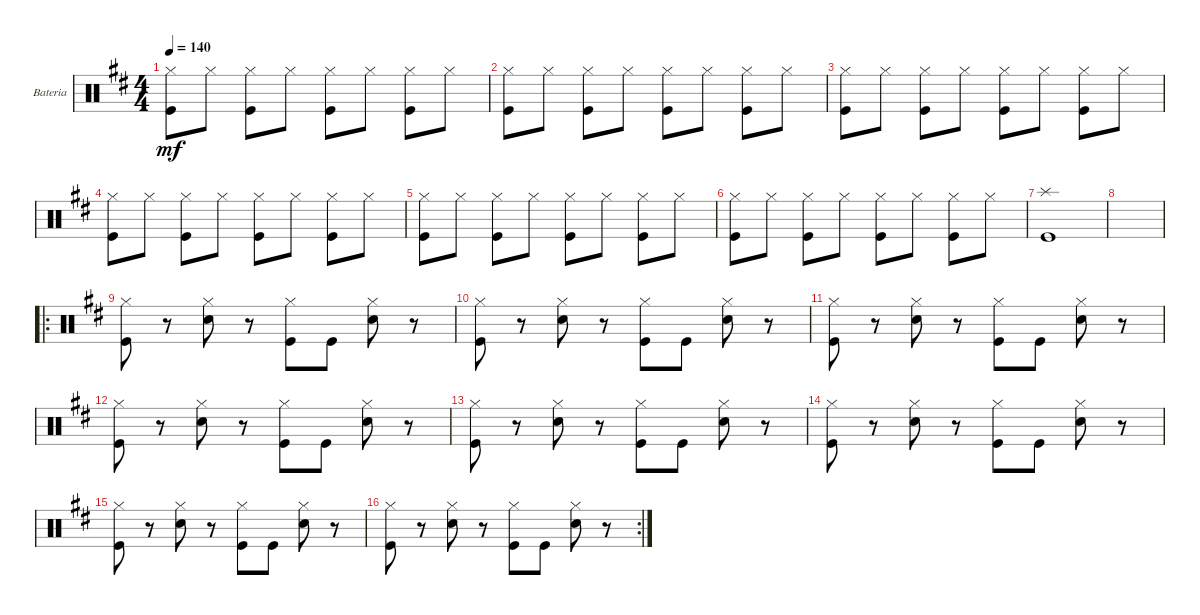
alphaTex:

\defaultSystemsLayout 4
\bracketExtendMode groupsimilarinstruments
\firstSystemTrackNameOrientation horizontal
\otherSystemsTrackNameOrientation horizontal
\track ("Bateria" "Bateria") {instrument percussion}
\staff {score}
\articulation defaults
\ts (4 4)
\tempo 140
\clef neutral
\ks d
("Kick (hit)" "Hi-Hat (closed)").8{dy mf} "Hi-Hat (closed)".8 ("Hi-Hat (closed)" "Kick (hit)").8 "Hi-Hat (closed)".8 ("Kick (hit)" "Hi-Hat (closed)").8 "Hi-Hat (closed)".8 ("Hi-Hat (closed)" "Kick (hit)").8 "Hi-Hat (closed)".8 |
("Kick (hit)" "Hi-Hat (closed)").8 "Hi-Hat (closed)".8 ("Hi-Hat (closed)" "Kick (hit)").8 "Hi-Hat (closed)".8 ("Kick (hit)" "Hi-Hat (closed)").8 "Hi-Hat (closed)".8 ("Hi-Hat (closed)" "Kick (hit)").8 "Hi-Hat (closed)".8 |
("Kick (hit)" "Hi-Hat (closed)").8 "Hi-Hat (closed)".8 ("Hi-Hat (closed)" "Kick (hit)").8 "Hi-Hat (closed)".8 ("Kick (hit)" "Hi-Hat (closed)").8 "Hi-Hat (closed)".8 ("Hi-Hat (closed)" "Kick (hit)").8 "Hi-Hat (closed)".8 |
("Kick (hit)" "Hi-Hat (closed)").8 "Hi-Hat (closed)".8 ("Hi-Hat (closed)" "Kick (hit)").8 "Hi-Hat (closed)".8 ("Kick (hit)" "Hi-Hat (closed)").8 "Hi-Hat (closed)".8 ("Hi-Hat (closed)" "Kick (hit)").8 "Hi-Hat (closed)".8 |
("Kick (hit)" "Hi-Hat (closed)").8 "Hi-Hat (closed)".8 ("Hi-Hat (closed)" "Kick (hit)").8 "Hi-Hat (closed)".8 ("Kick (hit)" "Hi-Hat (closed)").8 "Hi-Hat (closed)".8 ("Hi-Hat (closed)" "Kick (hit)").8 "Hi-Hat (closed)".8 |
("Kick (hit)" "Hi-Hat (closed)").8 "Hi-Hat (closed)".8 ("Hi-Hat (closed)" "Kick (hit)").8 "Hi-Hat (closed)".8 ("Kick (hit)" "Hi-Hat (closed)").8 "Hi-Hat (closed)".8 ("Hi-Hat (closed)" "Kick (hit)").8 "Hi-Hat (closed)".8 |
("Kick (hit)" "Splash (hit)").1 |
|
\ro
("Hi-Hat (closed)" "Kick (hit)").8 r.8 ("Hi-Hat (closed)" "Snare (hit) 2").8 r.8 ("Hi-Hat (closed)" "Kick (hit)").8 "Kick (hit)".8 ("Hi-Hat (closed)" "Snare (hit) 2").8 r.8 |
("Hi-Hat (closed)" "Kick (hit)").8 r.8 ("Hi-Hat (closed)" "Snare (hit) 2").8 r.8 ("Hi-Hat (closed)" "Kick (hit)").8 "Kick (hit)".8 ("Hi-Hat (closed)" "Snare (hit) 2").8 r.8 |
("Hi-Hat (closed)" "Kick (hit)").8 r.8 ("Hi-Hat (closed)" "Snare (hit) 2").8 r.8 ("Hi-Hat (closed)" "Kick (hit)").8 "Kick (hit)".8 ("Hi-Hat (closed)" "Snare (hit) 2").8 r.8 |
("Hi-Hat (closed)" "Kick (hit)").8 r.8 ("Hi-Hat (closed)" "Snare (hit) 2").8 r.8 ("Hi-Hat (closed)" "Kick (hit)").8 "Kick (hit)".8 ("Hi-Hat (closed)" "Snare (hit) 2").8 r.8 |
("Hi-Hat (closed)" "Kick (hit)").8 r.8 ("Hi-Hat (closed)" "Snare (hit) 2").8 r.8 ("Hi-Hat (closed)" "Kick (hit)").8 "Kick (hit)".8 ("Hi-Hat (closed)" "Snare (hit) 2").8 r.8 |
("Hi-Hat (closed)" "Kick (hit)").8 r.8 ("Hi-Hat (closed)" "Snare (hit) 2").8 r.8 ("Hi-Hat (closed)" "Kick (hit)").8 "Kick (hit)".8 ("Hi-Hat (closed)" "Snare (hit) 2").8 r.8 |
("Hi-Hat (closed)" "Kick (hit)").8 r.8 ("Hi-Hat (closed)" "Snare (hit) 2").8 r.8 ("Hi-Hat (closed)" "Kick (hit)").8 "Kick (hit)".8 ("Hi-Hat (closed)" "Snare (hit) 2").8 r.8 |
\rc 2
("Hi-Hat (closed)" "Kick (hit)").8 r.8 ("Hi-Hat (closed)" "Snare (hit) 2").8 r.8 ("Hi-Hat (closed)" "Kick (hit)").8 "Kick (hit)".8 ("Hi-Hat (closed)" "Snare (hit) 2").8 r.8
